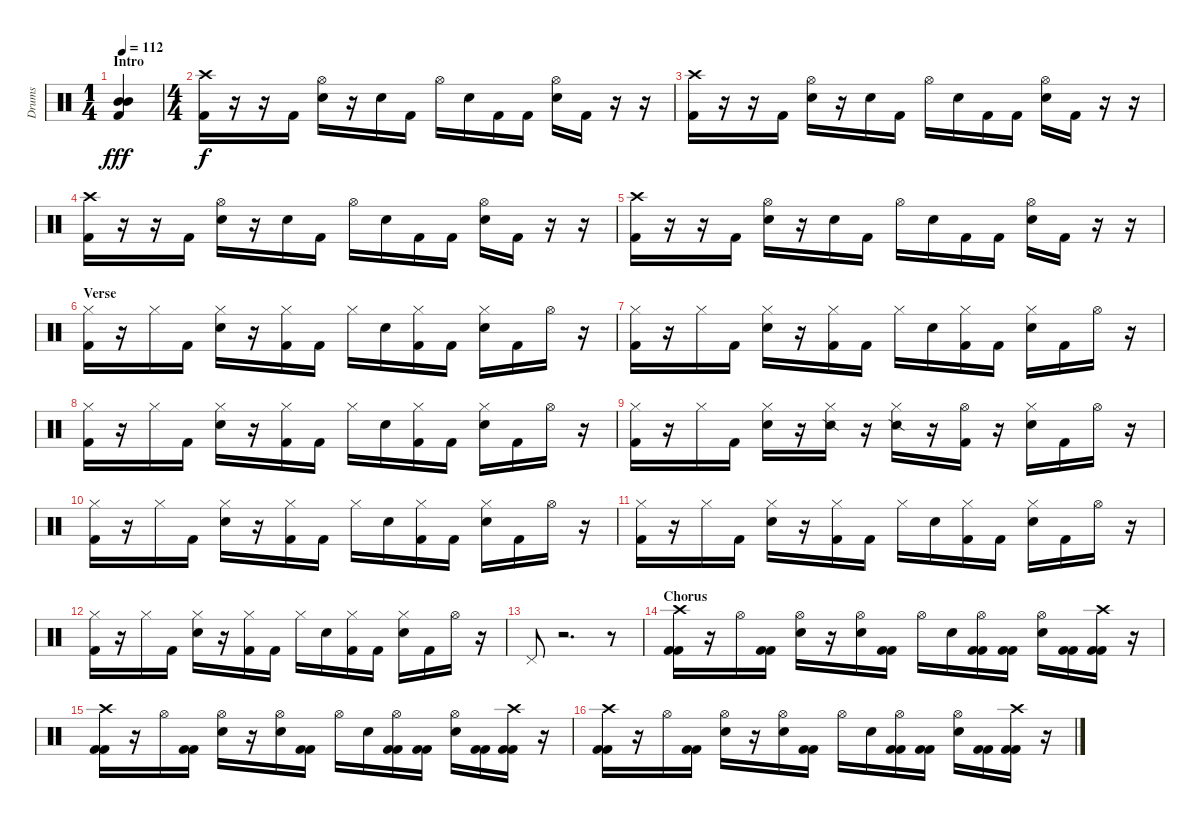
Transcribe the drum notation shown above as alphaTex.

\track ("Drums" "Drums") {instrument percussion}
\staff {score}
\articulation defaults
\ts (1 4)
\section ("" "Intro")
\tempo 112
\clef neutral
\ks c
("Mid Tom (hit)" "Mid Tom (hit)" "Kick (hit) 2").4{dy fff} |
\ts (4 4)
("Crash high (hit)" "Kick (hit) 2").16{dy f} r.16 r.16 "Kick (hit) 2".16 ("Hi-Hat (open)" "Snare (hit) 2").16 r.16 "Snare (hit) 2".16 "Kick (hit) 2".16 "Hi-Hat (open)".16 "Snare (hit) 2".16 "Kick (hit) 2".16 "Kick (hit) 2".16 ("Hi-Hat (open)" "Snare (hit) 2").16 "Kick (hit) 2".16 r.16 r.16 |
("Crash high (hit)" "Kick (hit) 2").16 r.16 r.16 "Kick (hit) 2".16 ("Hi-Hat (open)" "Snare (hit) 2").16 r.16 "Snare (hit) 2".16 "Kick (hit) 2".16 "Hi-Hat (open)".16 "Snare (hit) 2".16 "Kick (hit) 2".16 "Kick (hit) 2".16 ("Hi-Hat (open)" "Snare (hit) 2").16 "Kick (hit) 2".16 r.16 r.16 |
("Crash high (hit)" "Kick (hit) 2").16 r.16 r.16 "Kick (hit) 2".16 ("Hi-Hat (open)" "Snare (hit) 2").16 r.16 "Snare (hit) 2".16 "Kick (hit) 2".16 "Hi-Hat (open)".16 "Snare (hit) 2".16 "Kick (hit) 2".16 "Kick (hit) 2".16 ("Hi-Hat (open)" "Snare (hit) 2").16 "Kick (hit) 2".16 r.16 r.16 |
("Crash high (hit)" "Kick (hit) 2").16 r.16 r.16 "Kick (hit) 2".16 ("Hi-Hat (open)" "Snare (hit) 2").16 r.16 "Snare (hit) 2".16 "Kick (hit) 2".16 "Hi-Hat (open)".16 "Snare (hit) 2".16 "Kick (hit) 2".16 "Kick (hit) 2".16 ("Hi-Hat (open)" "Snare (hit) 2").16 "Kick (hit) 2".16 r.16 r.16 |
\section ("" "Verse")
("Hi-Hat (closed)" "Kick (hit) 2").16 r.16 "Hi-Hat (closed)".16 "Kick (hit) 2".16 ("Hi-Hat (closed)" "Snare (hit) 2").16 r.16 ("Hi-Hat (closed)" "Kick (hit) 2").16 "Kick (hit) 2".16 "Hi-Hat (closed)".16 "Snare (hit) 2".16 ("Hi-Hat (closed)" "Kick (hit) 2").16 "Kick (hit) 2".16 ("Hi-Hat (closed)" "Snare (hit) 2").16 "Kick (hit) 2".16 "Hi-Hat (open)".16 r.16 |
("Hi-Hat (closed)" "Kick (hit) 2").16 r.16 "Hi-Hat (closed)".16 "Kick (hit) 2".16 ("Hi-Hat (closed)" "Snare (hit) 2").16 r.16 ("Hi-Hat (closed)" "Kick (hit) 2").16 "Kick (hit) 2".16 "Hi-Hat (closed)".16 "Snare (hit) 2".16 ("Hi-Hat (closed)" "Kick (hit) 2").16 "Kick (hit) 2".16 ("Hi-Hat (closed)" "Snare (hit) 2").16 "Kick (hit) 2".16 "Hi-Hat (open)".16 r.16 |
("Hi-Hat (closed)" "Kick (hit) 2").16 r.16 "Hi-Hat (closed)".16 "Kick (hit) 2".16 ("Hi-Hat (closed)" "Snare (hit) 2").16 r.16 ("Hi-Hat (closed)" "Kick (hit) 2").16 "Kick (hit) 2".16 "Hi-Hat (closed)".16 "Snare (hit) 2".16 ("Hi-Hat (closed)" "Kick (hit) 2").16 "Kick (hit) 2".16 ("Hi-Hat (closed)" "Snare (hit) 2").16 "Kick (hit) 2".16 "Hi-Hat (open)".16 r.16 |
("Hi-Hat (closed)" "Kick (hit) 2").16 r.16 "Hi-Hat (closed)".16 "Kick (hit) 2".16 ("Hi-Hat (closed)" "Snare (hit) 2").16 r.16 ("Hi-Hat (closed)" "Snare (side stick) 2").16 r.16 ("Hi-Hat (closed)" "Snare (side stick) 2").16 r.16 ("Hi-Hat (open)" "Kick (hit) 2").16 r.16 ("Hi-Hat (closed)" "Snare (hit) 2").16 "Kick (hit) 2".16 "Hi-Hat (open)".16 r.16 |
("Hi-Hat (closed)" "Kick (hit) 2").16 r.16 "Hi-Hat (closed)".16 "Kick (hit) 2".16 ("Hi-Hat (closed)" "Snare (hit) 2").16 r.16 ("Hi-Hat (closed)" "Kick (hit) 2").16 "Kick (hit) 2".16 "Hi-Hat (closed)".16 "Snare (hit) 2".16 ("Hi-Hat (closed)" "Kick (hit) 2").16 "Kick (hit) 2".16 ("Hi-Hat (closed)" "Snare (hit) 2").16 "Kick (hit) 2".16 "Hi-Hat (open)".16 r.16 |
("Hi-Hat (closed)" "Kick (hit) 2").16 r.16 "Hi-Hat (closed)".16 "Kick (hit) 2".16 ("Hi-Hat (closed)" "Snare (hit) 2").16 r.16 ("Hi-Hat (closed)" "Kick (hit) 2").16 "Kick (hit) 2".16 "Hi-Hat (closed)".16 "Snare (hit) 2".16 ("Hi-Hat (closed)" "Kick (hit) 2").16 "Kick (hit) 2".16 ("Hi-Hat (closed)" "Snare (hit) 2").16 "Kick (hit) 2".16 "Hi-Hat (open)".16 r.16 |
("Hi-Hat (closed)" "Kick (hit) 2").16 r.16 "Hi-Hat (closed)".16 "Kick (hit) 2".16 ("Hi-Hat (closed)" "Snare (hit) 2").16 r.16 ("Hi-Hat (closed)" "Kick (hit) 2").16 "Kick (hit) 2".16 "Hi-Hat (closed)".16 "Snare (hit) 2".16 ("Hi-Hat (closed)" "Kick (hit) 2").16 "Kick (hit) 2".16 ("Hi-Hat (closed)" "Snare (hit) 2").16 "Kick (hit) 2".16 "Hi-Hat (open)".16 r.16 |
"Pedal Hi-Hat (hit)".8 r.2{d} r.8 |
\section ("" "Chorus")
("Crash high (hit)" "Kick (hit) 2" "Kick (hit) 2").16 r.16 "Hi-Hat (open)".16 ("Kick (hit) 2" "Kick (hit) 2").16 ("Hi-Hat (open)" "Snare (hit) 2").16 r.16 ("Hi-Hat (open)" "Snare (hit) 2").16 ("Kick (hit) 2" "Kick (hit) 2").16 "Hi-Hat (open)".16 "Snare (hit) 2".16 ("Hi-Hat (open)" "Kick (hit) 2" "Kick (hit) 2").16 ("Kick (hit) 2" "Kick (hit) 2").16 ("Hi-Hat (open)" "Snare (hit) 2").16 ("Kick (hit) 2" "Kick (hit) 2").16 ("Crash high (hit)" "Kick (hit) 2" "Kick (hit) 2").16 r.16 |
("Crash high (hit)" "Kick (hit) 2" "Kick (hit) 2").16 r.16 "Hi-Hat (open)".16 ("Kick (hit) 2" "Kick (hit) 2").16 ("Hi-Hat (open)" "Snare (hit) 2").16 r.16 ("Hi-Hat (open)" "Snare (hit) 2").16 ("Kick (hit) 2" "Kick (hit) 2").16 "Hi-Hat (open)".16 "Snare (hit) 2".16 ("Hi-Hat (open)" "Kick (hit) 2" "Kick (hit) 2").16 ("Kick (hit) 2" "Kick (hit) 2").16 ("Hi-Hat (open)" "Snare (hit) 2").16 ("Kick (hit) 2" "Kick (hit) 2").16 ("Crash high (hit)" "Kick (hit) 2" "Kick (hit) 2").16 r.16 |
("Crash high (hit)" "Kick (hit) 2" "Kick (hit) 2").16 r.16 "Hi-Hat (open)".16 ("Kick (hit) 2" "Kick (hit) 2").16 ("Hi-Hat (open)" "Snare (hit) 2").16 r.16 ("Hi-Hat (open)" "Snare (hit) 2").16 ("Kick (hit) 2" "Kick (hit) 2").16 "Hi-Hat (open)".16 "Snare (hit) 2".16 ("Hi-Hat (open)" "Kick (hit) 2" "Kick (hit) 2").16 ("Kick (hit) 2" "Kick (hit) 2").16 ("Hi-Hat (open)" "Snare (hit) 2").16 ("Kick (hit) 2" "Kick (hit) 2").16 ("Crash high (hit)" "Kick (hit) 2" "Kick (hit) 2").16 r.16
